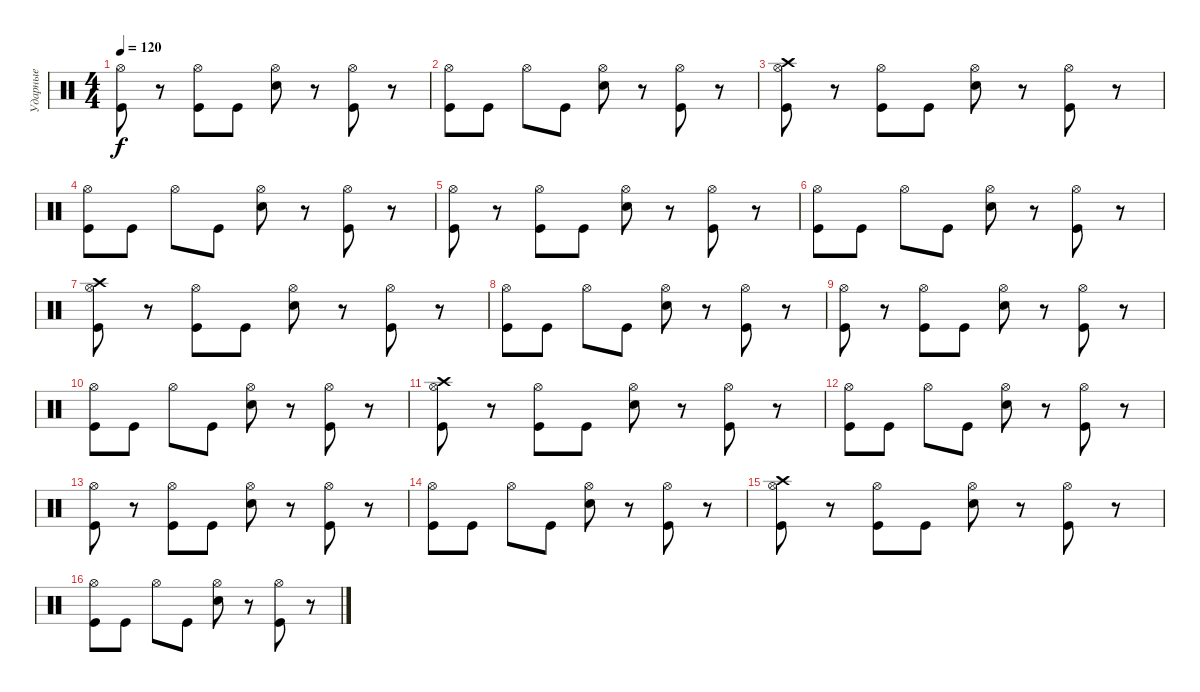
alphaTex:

\track ("Ударные" "Ударные") {instrument percussion}
\staff {score}
\articulation defaults
\ts (4 4)
\tempo 120
\clef neutral
\ks c
("Hi-Hat (open)" "Kick (hit)").8{dy f} r.8 ("Hi-Hat (open)" "Kick (hit)").8 "Kick (hit)".8 ("Hi-Hat (open)" "Electric Snare (hit)").8 r.8 ("Hi-Hat (open)" "Kick (hit)").8 r.8 |
("Hi-Hat (open)" "Kick (hit)").8 "Kick (hit)".8 "Hi-Hat (open)".8 "Kick (hit)".8 ("Hi-Hat (open)" "Electric Snare (hit)").8 r.8 ("Hi-Hat (open)" "Kick (hit)").8 r.8 |
("Crash high (hit)" "Hi-Hat (open)" "Kick (hit)").8 r.8 ("Hi-Hat (open)" "Kick (hit)").8 "Kick (hit)".8 ("Hi-Hat (open)" "Electric Snare (hit)").8 r.8 ("Hi-Hat (open)" "Kick (hit)").8 r.8 |
("Hi-Hat (open)" "Kick (hit)").8 "Kick (hit)".8 "Hi-Hat (open)".8 "Kick (hit)".8 ("Hi-Hat (open)" "Electric Snare (hit)").8 r.8 ("Hi-Hat (open)" "Kick (hit)").8 r.8 |
("Hi-Hat (open)" "Kick (hit)").8 r.8 ("Hi-Hat (open)" "Kick (hit)").8 "Kick (hit)".8 ("Hi-Hat (open)" "Electric Snare (hit)").8 r.8 ("Hi-Hat (open)" "Kick (hit)").8 r.8 |
("Hi-Hat (open)" "Kick (hit)").8 "Kick (hit)".8 "Hi-Hat (open)".8 "Kick (hit)".8 ("Hi-Hat (open)" "Electric Snare (hit)").8 r.8 ("Hi-Hat (open)" "Kick (hit)").8 r.8 |
("Crash high (hit)" "Hi-Hat (open)" "Kick (hit)").8 r.8 ("Hi-Hat (open)" "Kick (hit)").8 "Kick (hit)".8 ("Hi-Hat (open)" "Electric Snare (hit)").8 r.8 ("Hi-Hat (open)" "Kick (hit)").8 r.8 |
("Hi-Hat (open)" "Kick (hit)").8 "Kick (hit)".8 "Hi-Hat (open)".8 "Kick (hit)".8 ("Hi-Hat (open)" "Electric Snare (hit)").8 r.8 ("Hi-Hat (open)" "Kick (hit)").8 r.8 |
("Hi-Hat (open)" "Kick (hit)").8 r.8 ("Hi-Hat (open)" "Kick (hit)").8 "Kick (hit)".8 ("Hi-Hat (open)" "Electric Snare (hit)").8 r.8 ("Hi-Hat (open)" "Kick (hit)").8 r.8 |
("Hi-Hat (open)" "Kick (hit)").8 "Kick (hit)".8 "Hi-Hat (open)".8 "Kick (hit)".8 ("Hi-Hat (open)" "Electric Snare (hit)").8 r.8 ("Hi-Hat (open)" "Kick (hit)").8 r.8 |
("Crash high (hit)" "Hi-Hat (open)" "Kick (hit)").8 r.8 ("Hi-Hat (open)" "Kick (hit)").8 "Kick (hit)".8 ("Hi-Hat (open)" "Electric Snare (hit)").8 r.8 ("Hi-Hat (open)" "Kick (hit)").8 r.8 |
("Hi-Hat (open)" "Kick (hit)").8 "Kick (hit)".8 "Hi-Hat (open)".8 "Kick (hit)".8 ("Hi-Hat (open)" "Electric Snare (hit)").8 r.8 ("Hi-Hat (open)" "Kick (hit)").8 r.8 |
("Hi-Hat (open)" "Kick (hit)").8 r.8 ("Hi-Hat (open)" "Kick (hit)").8 "Kick (hit)".8 ("Hi-Hat (open)" "Electric Snare (hit)").8 r.8 ("Hi-Hat (open)" "Kick (hit)").8 r.8 |
("Hi-Hat (open)" "Kick (hit)").8 "Kick (hit)".8 "Hi-Hat (open)".8 "Kick (hit)".8 ("Hi-Hat (open)" "Electric Snare (hit)").8 r.8 ("Hi-Hat (open)" "Kick (hit)").8 r.8 |
("Crash high (hit)" "Hi-Hat (open)" "Kick (hit)").8 r.8 ("Hi-Hat (open)" "Kick (hit)").8 "Kick (hit)".8 ("Hi-Hat (open)" "Electric Snare (hit)").8 r.8 ("Hi-Hat (open)" "Kick (hit)").8 r.8 |
("Hi-Hat (open)" "Kick (hit)").8 "Kick (hit)".8 "Hi-Hat (open)".8 "Kick (hit)".8 ("Hi-Hat (open)" "Electric Snare (hit)").8 r.8 ("Hi-Hat (open)" "Kick (hit)").8 r.8
